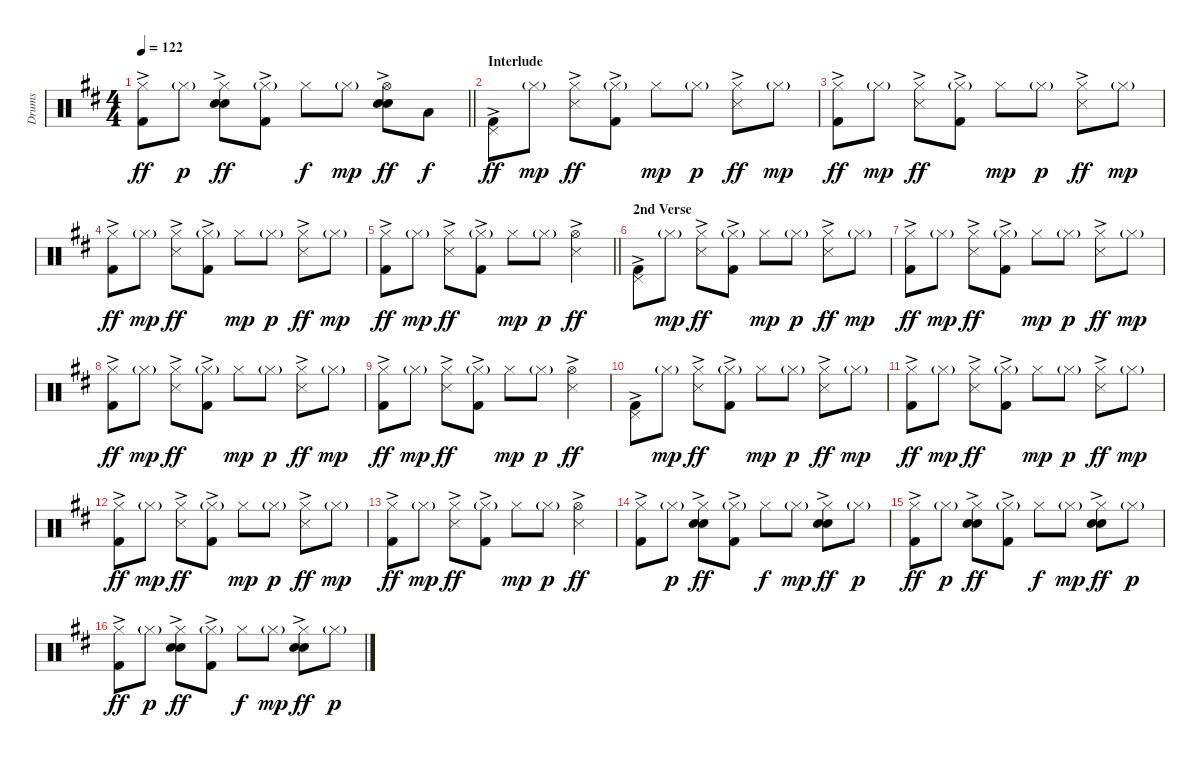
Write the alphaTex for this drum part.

\track ("Drums" "Drums") {instrument percussion}
\staff {score}
\articulation defaults
\ts (4 4)
\tempo 122
\clef neutral
\barLineRight lightlight
\ks d
("Hi-Hat (closed)" "Kick (hit) 2"{ac}).8{dy ff} "Hi-Hat (closed)"{g}.8{dy p} ("Hi-Hat (closed)" "Electric Snare (hit)"{ac} "Snare (hit) 2").8{dy ff} ("Hi-Hat (closed)"{g} "Kick (hit) 2"{ac}).8 "Hi-Hat (closed)".8{dy f} "Hi-Hat (closed)"{g}.8{dy mp} ("Hi-Hat (open)" "Electric Snare (hit)"{ac} "Snare (hit) 2").8{dy ff} "Low Tom (hit)".8{dy f} |
\section ("" "Interlude")
("Pedal Hi-Hat (hit)" "Kick (hit) 2"{ac}).8{dy ff} "Hi-Hat (closed)"{g}.8{dy mp} ("Hi-Hat (closed)" "Snare (side stick) 3"{ac}).8{dy ff} ("Hi-Hat (closed)"{g} "Kick (hit) 2"{ac}).8 "Hi-Hat (closed)".8{dy mp} "Hi-Hat (closed)"{g}.8{dy p} ("Hi-Hat (closed)" "Snare (side stick) 3"{ac}).8{dy ff} "Hi-Hat (closed)"{g}.8{dy mp} |
("Hi-Hat (closed)" "Kick (hit) 2"{ac}).8{dy ff} "Hi-Hat (closed)"{g}.8{dy mp} ("Hi-Hat (closed)" "Snare (side stick) 3"{ac}).8{dy ff} ("Hi-Hat (closed)"{g} "Kick (hit) 2"{ac}).8 "Hi-Hat (closed)".8{dy mp} "Hi-Hat (closed)"{g}.8{dy p} ("Hi-Hat (closed)" "Snare (side stick) 3"{ac}).8{dy ff} "Hi-Hat (closed)"{g}.8{dy mp} |
("Hi-Hat (closed)" "Kick (hit) 2"{ac}).8{dy ff} "Hi-Hat (closed)"{g}.8{dy mp} ("Hi-Hat (closed)" "Snare (side stick) 3"{ac}).8{dy ff} ("Hi-Hat (closed)"{g} "Kick (hit) 2"{ac}).8 "Hi-Hat (closed)".8{dy mp} "Hi-Hat (closed)"{g}.8{dy p} ("Hi-Hat (closed)" "Snare (side stick) 3"{ac}).8{dy ff} "Hi-Hat (closed)"{g}.8{dy mp} |
\barLineRight lightlight
("Hi-Hat (closed)" "Kick (hit) 2"{ac}).8{dy ff} "Hi-Hat (closed)"{g}.8{dy mp} ("Hi-Hat (closed)" "Snare (side stick) 3"{ac}).8{dy ff} ("Hi-Hat (closed)"{g} "Kick (hit) 2"{ac}).8 "Hi-Hat (closed)".8{dy mp} "Hi-Hat (closed)"{g}.8{dy p} ("Hi-Hat (open)" "Snare (side stick) 3"{ac}).4{dy ff} |
\section ("" "2nd Verse")
("Pedal Hi-Hat (hit)" "Kick (hit) 2"{ac}).8 "Hi-Hat (closed)"{g}.8{dy mp} ("Hi-Hat (closed)" "Snare (side stick) 3"{ac}).8{dy ff} ("Hi-Hat (closed)"{g} "Kick (hit) 2"{ac}).8 "Hi-Hat (closed)".8{dy mp} "Hi-Hat (closed)"{g}.8{dy p} ("Hi-Hat (closed)" "Snare (side stick) 3"{ac}).8{dy ff} "Hi-Hat (closed)"{g}.8{dy mp} |
("Hi-Hat (closed)" "Kick (hit) 2"{ac}).8{dy ff} "Hi-Hat (closed)"{g}.8{dy mp} ("Hi-Hat (closed)" "Snare (side stick) 3"{ac}).8{dy ff} ("Hi-Hat (closed)"{g} "Kick (hit) 2"{ac}).8 "Hi-Hat (closed)".8{dy mp} "Hi-Hat (closed)"{g}.8{dy p} ("Hi-Hat (closed)" "Snare (side stick) 3"{ac}).8{dy ff} "Hi-Hat (closed)"{g}.8{dy mp} |
("Hi-Hat (closed)" "Kick (hit) 2"{ac}).8{dy ff} "Hi-Hat (closed)"{g}.8{dy mp} ("Hi-Hat (closed)" "Snare (side stick) 3"{ac}).8{dy ff} ("Hi-Hat (closed)"{g} "Kick (hit) 2"{ac}).8 "Hi-Hat (closed)".8{dy mp} "Hi-Hat (closed)"{g}.8{dy p} ("Hi-Hat (closed)" "Snare (side stick) 3"{ac}).8{dy ff} "Hi-Hat (closed)"{g}.8{dy mp} |
("Hi-Hat (closed)" "Kick (hit) 2"{ac}).8{dy ff} "Hi-Hat (closed)"{g}.8{dy mp} ("Hi-Hat (closed)" "Snare (side stick) 3"{ac}).8{dy ff} ("Hi-Hat (closed)"{g} "Kick (hit) 2"{ac}).8 "Hi-Hat (closed)".8{dy mp} "Hi-Hat (closed)"{g}.8{dy p} ("Hi-Hat (open)" "Snare (side stick) 3"{ac}).4{dy ff} |
("Pedal Hi-Hat (hit)" "Kick (hit) 2"{ac}).8 "Hi-Hat (closed)"{g}.8{dy mp} ("Hi-Hat (closed)" "Snare (side stick) 3"{ac}).8{dy ff} ("Hi-Hat (closed)"{g} "Kick (hit) 2"{ac}).8 "Hi-Hat (closed)".8{dy mp} "Hi-Hat (closed)"{g}.8{dy p} ("Hi-Hat (closed)" "Snare (side stick) 3"{ac}).8{dy ff} "Hi-Hat (closed)"{g}.8{dy mp} |
("Hi-Hat (closed)" "Kick (hit) 2"{ac}).8{dy ff} "Hi-Hat (closed)"{g}.8{dy mp} ("Hi-Hat (closed)" "Snare (side stick) 3"{ac}).8{dy ff} ("Hi-Hat (closed)"{g} "Kick (hit) 2"{ac}).8 "Hi-Hat (closed)".8{dy mp} "Hi-Hat (closed)"{g}.8{dy p} ("Hi-Hat (closed)" "Snare (side stick) 3"{ac}).8{dy ff} "Hi-Hat (closed)"{g}.8{dy mp} |
("Hi-Hat (closed)" "Kick (hit) 2"{ac}).8{dy ff} "Hi-Hat (closed)"{g}.8{dy mp} ("Hi-Hat (closed)" "Snare (side stick) 3"{ac}).8{dy ff} ("Hi-Hat (closed)"{g} "Kick (hit) 2"{ac}).8 "Hi-Hat (closed)".8{dy mp} "Hi-Hat (closed)"{g}.8{dy p} ("Hi-Hat (closed)" "Snare (side stick) 3"{ac}).8{dy ff} "Hi-Hat (closed)"{g}.8{dy mp} |
("Hi-Hat (closed)" "Kick (hit) 2"{ac}).8{dy ff} "Hi-Hat (closed)"{g}.8{dy mp} ("Hi-Hat (closed)" "Snare (side stick) 3"{ac}).8{dy ff} ("Hi-Hat (closed)"{g} "Kick (hit) 2"{ac}).8 "Hi-Hat (closed)".8{dy mp} "Hi-Hat (closed)"{g}.8{dy p} ("Hi-Hat (open)" "Snare (side stick) 3"{ac}).4{dy ff} |
("Hi-Hat (closed)" "Kick (hit) 2"{ac}).8 "Hi-Hat (closed)"{g}.8{dy p} ("Hi-Hat (closed)" "Electric Snare (hit)"{ac} "Snare (hit) 2").8{dy ff} ("Hi-Hat (closed)"{g} "Kick (hit) 2"{ac}).8 "Hi-Hat (closed)".8{dy f} "Hi-Hat (closed)"{g}.8{dy mp} ("Hi-Hat (closed)" "Electric Snare (hit)"{ac} "Snare (hit) 2").8{dy ff} "Hi-Hat (closed)"{g}.8{dy p} |
("Hi-Hat (closed)" "Kick (hit) 2"{ac}).8{dy ff} "Hi-Hat (closed)"{g}.8{dy p} ("Hi-Hat (closed)" "Electric Snare (hit)"{ac} "Snare (hit) 2").8{dy ff} ("Hi-Hat (closed)"{g} "Kick (hit) 2"{ac}).8 "Hi-Hat (closed)".8{dy f} "Hi-Hat (closed)"{g}.8{dy mp} ("Hi-Hat (closed)" "Electric Snare (hit)"{ac} "Snare (hit) 2").8{dy ff} "Hi-Hat (closed)"{g}.8{dy p} |
("Hi-Hat (closed)" "Kick (hit) 2"{ac}).8{dy ff} "Hi-Hat (closed)"{g}.8{dy p} ("Hi-Hat (closed)" "Electric Snare (hit)"{ac} "Snare (hit) 2").8{dy ff} ("Hi-Hat (closed)"{g} "Kick (hit) 2"{ac}).8 "Hi-Hat (closed)".8{dy f} "Hi-Hat (closed)"{g}.8{dy mp} ("Hi-Hat (closed)" "Electric Snare (hit)"{ac} "Snare (hit) 2").8{dy ff} "Hi-Hat (closed)"{g}.8{dy p}
